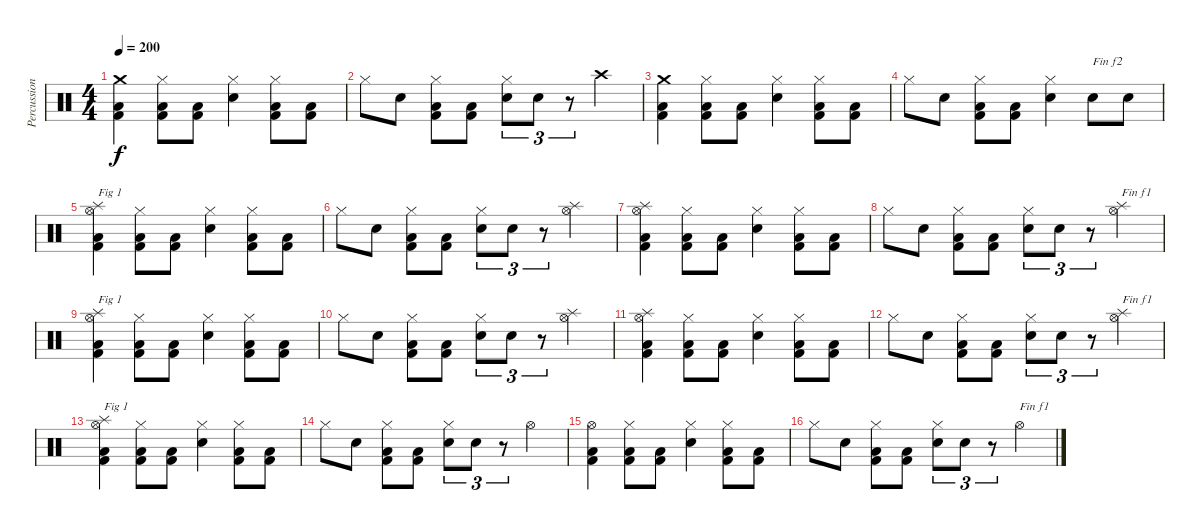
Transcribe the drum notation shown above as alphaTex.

\track ("Percussions" "Percussion") {instrument percussion}
\staff {score}
\articulation defaults
\ts (4 4)
\tempo 200
\clef neutral
\ks c
("Kick (hit) 2" "Low Floor Tom (hit)" "Crash medium (hit)").4{dy f} ("Kick (hit) 2" "Low Floor Tom (hit)" "Hi-Hat (closed)").8 ("Kick (hit) 2" "Low Floor Tom (hit)").8 ("Snare (hit) 2" "Hi-Hat (closed)").4 ("Kick (hit) 2" "Low Floor Tom (hit)" "Hi-Hat (closed)").8 ("Kick (hit) 2" "Low Floor Tom (hit)").8 |
"Hi-Hat (closed)".8 "Snare (hit) 2".8 ("Kick (hit) 2" "Low Floor Tom (hit)" "Hi-Hat (closed)").8 ("Kick (hit) 2" "Low Floor Tom (hit)").8 ("Snare (hit) 2" "Hi-Hat (closed)").8{tu (3 2)} "Snare (hit) 2".8{tu (3 2)} r.8{tu (3 2)} "Crash high (hit)".4 |
("Kick (hit) 2" "Low Floor Tom (hit)" "Crash medium (hit)").4 ("Kick (hit) 2" "Low Floor Tom (hit)" "Hi-Hat (closed)").8 ("Kick (hit) 2" "Low Floor Tom (hit)").8 ("Snare (hit) 2" "Hi-Hat (closed)").4 ("Kick (hit) 2" "Low Floor Tom (hit)" "Hi-Hat (closed)").8 ("Kick (hit) 2" "Low Floor Tom (hit)").8 |
"Hi-Hat (closed)".8 "Snare (hit) 2".8 ("Kick (hit) 2" "Low Floor Tom (hit)" "Hi-Hat (closed)").8 ("Kick (hit) 2" "Low Floor Tom (hit)").8 ("Snare (hit) 2" "Hi-Hat (closed)").4 "Snare (hit) 2".8{txt "Fin f2"} "Snare (hit) 2".8 |
("Kick (hit) 2" "Low Floor Tom (hit)" "Hi-Hat (open)" "Splash (hit)").4{txt "Fig 1"} ("Kick (hit) 2" "Low Floor Tom (hit)" "Hi-Hat (closed)").8 ("Kick (hit) 2" "Low Floor Tom (hit)").8 ("Snare (hit) 2" "Hi-Hat (closed)").4 ("Kick (hit) 2" "Low Floor Tom (hit)" "Hi-Hat (closed)").8 ("Kick (hit) 2" "Low Floor Tom (hit)").8 |
"Hi-Hat (closed)".8 "Snare (hit) 2".8 ("Kick (hit) 2" "Low Floor Tom (hit)" "Hi-Hat (closed)").8 ("Kick (hit) 2" "Low Floor Tom (hit)").8 ("Snare (hit) 2" "Hi-Hat (closed)").8{tu (3 2)} "Snare (hit) 2".8{tu (3 2)} r.8{tu (3 2)} ("Hi-Hat (open)" "Splash (hit)").4 |
("Kick (hit) 2" "Low Floor Tom (hit)" "Hi-Hat (open)" "Splash (hit)").4 ("Kick (hit) 2" "Low Floor Tom (hit)" "Hi-Hat (closed)").8 ("Kick (hit) 2" "Low Floor Tom (hit)").8 ("Snare (hit) 2" "Hi-Hat (closed)").4 ("Kick (hit) 2" "Low Floor Tom (hit)" "Hi-Hat (closed)").8 ("Kick (hit) 2" "Low Floor Tom (hit)").8 |
"Hi-Hat (closed)".8 "Snare (hit) 2".8 ("Kick (hit) 2" "Low Floor Tom (hit)" "Hi-Hat (closed)").8 ("Kick (hit) 2" "Low Floor Tom (hit)").8 ("Snare (hit) 2" "Hi-Hat (closed)").8{tu (3 2)} "Snare (hit) 2".8{tu (3 2)} r.8{tu (3 2)} ("Hi-Hat (open)" "Splash (hit)").4{txt "Fin f1"} |
("Kick (hit) 2" "Low Floor Tom (hit)" "Hi-Hat (open)" "Splash (hit)").4{txt "Fig 1"} ("Kick (hit) 2" "Low Floor Tom (hit)" "Hi-Hat (closed)").8 ("Kick (hit) 2" "Low Floor Tom (hit)").8 ("Snare (hit) 2" "Hi-Hat (closed)").4 ("Kick (hit) 2" "Low Floor Tom (hit)" "Hi-Hat (closed)").8 ("Kick (hit) 2" "Low Floor Tom (hit)").8 |
"Hi-Hat (closed)".8 "Snare (hit) 2".8 ("Kick (hit) 2" "Low Floor Tom (hit)" "Hi-Hat (closed)").8 ("Kick (hit) 2" "Low Floor Tom (hit)").8 ("Snare (hit) 2" "Hi-Hat (closed)").8{tu (3 2)} "Snare (hit) 2".8{tu (3 2)} r.8{tu (3 2)} ("Hi-Hat (open)" "Splash (hit)").4 |
("Kick (hit) 2" "Low Floor Tom (hit)" "Hi-Hat (open)" "Splash (hit)").4 ("Kick (hit) 2" "Low Floor Tom (hit)" "Hi-Hat (closed)").8 ("Kick (hit) 2" "Low Floor Tom (hit)").8 ("Snare (hit) 2" "Hi-Hat (closed)").4 ("Kick (hit) 2" "Low Floor Tom (hit)" "Hi-Hat (closed)").8 ("Kick (hit) 2" "Low Floor Tom (hit)").8 |
"Hi-Hat (closed)".8 "Snare (hit) 2".8 ("Kick (hit) 2" "Low Floor Tom (hit)" "Hi-Hat (closed)").8 ("Kick (hit) 2" "Low Floor Tom (hit)").8 ("Snare (hit) 2" "Hi-Hat (closed)").8{tu (3 2)} "Snare (hit) 2".8{tu (3 2)} r.8{tu (3 2)} ("Hi-Hat (open)" "Splash (hit)").4{txt "Fin f1"} |
("Kick (hit) 2" "Low Floor Tom (hit)" "Hi-Hat (open)" "Splash (hit)").4{txt "Fig 1"} ("Kick (hit) 2" "Low Floor Tom (hit)" "Hi-Hat (closed)").8 ("Kick (hit) 2" "Low Floor Tom (hit)").8 ("Snare (hit) 2" "Hi-Hat (closed)").4 ("Kick (hit) 2" "Low Floor Tom (hit)" "Hi-Hat (closed)").8 ("Kick (hit) 2" "Low Floor Tom (hit)").8 |
"Hi-Hat (closed)".8 "Snare (hit) 2".8 ("Kick (hit) 2" "Low Floor Tom (hit)" "Hi-Hat (closed)").8 ("Kick (hit) 2" "Low Floor Tom (hit)").8 ("Snare (hit) 2" "Hi-Hat (closed)").8{tu (3 2)} "Snare (hit) 2".8{tu (3 2)} r.8{tu (3 2)} "Hi-Hat (open)".4 |
("Kick (hit) 2" "Low Floor Tom (hit)" "Hi-Hat (open)").4 ("Kick (hit) 2" "Low Floor Tom (hit)" "Hi-Hat (closed)").8 ("Kick (hit) 2" "Low Floor Tom (hit)").8 ("Snare (hit) 2" "Hi-Hat (closed)").4 ("Kick (hit) 2" "Low Floor Tom (hit)" "Hi-Hat (closed)").8 ("Kick (hit) 2" "Low Floor Tom (hit)").8 |
"Hi-Hat (closed)".8 "Snare (hit) 2".8 ("Kick (hit) 2" "Low Floor Tom (hit)" "Hi-Hat (closed)").8 ("Kick (hit) 2" "Low Floor Tom (hit)").8 ("Snare (hit) 2" "Hi-Hat (closed)").8{tu (3 2)} "Snare (hit) 2".8{tu (3 2)} r.8{tu (3 2)} "Hi-Hat (open)".4{txt "Fin f1"}
